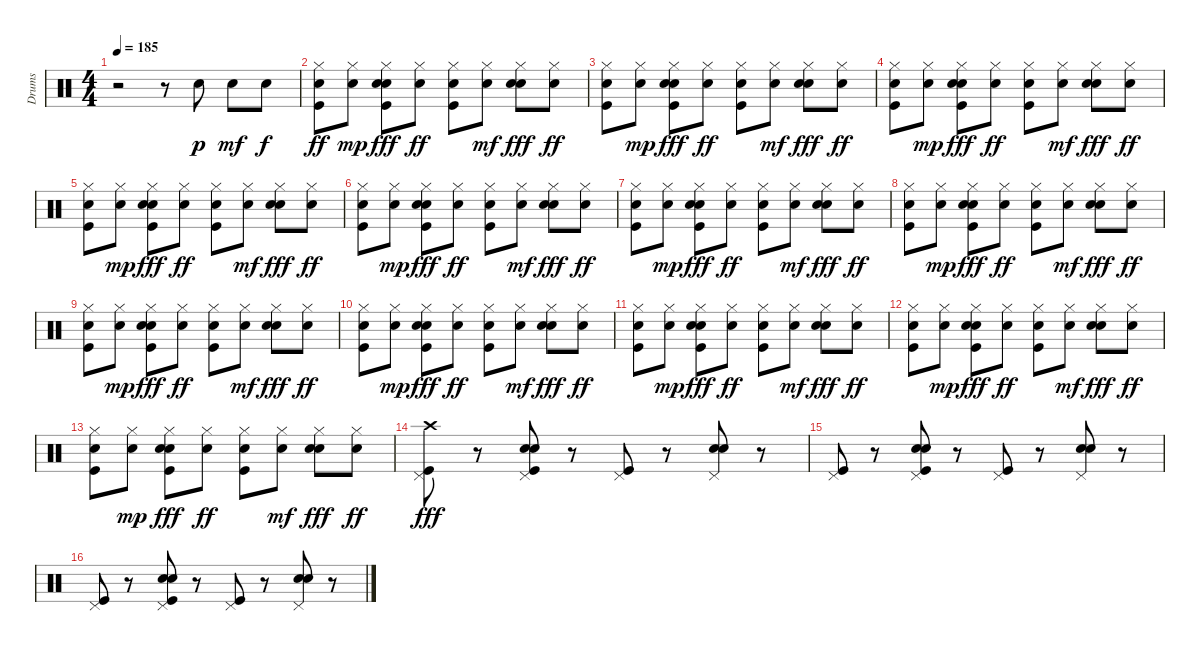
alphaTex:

\track ("Drums" "Drums") {instrument percussion}
\staff {score}
\articulation defaults
\ts (4 4)
\tempo 185
\clef neutral
\ks c
r.2{dy p} r.8 "Snare (hit) 2".8 "Snare (hit) 2".8{dy mf} "Snare (hit) 2".8{dy f} |
("Snare (hit) 2" "Kick (hit)" "Hi-Hat (closed)").8{dy ff} ("Hi-Hat (closed)" "Snare (hit) 2").8{dy mp} ("Kick (hit)" "Snare (hit) 2" "Hi-Hat (closed)" "Hand Clap (hit)").8{dy fff} ("Snare (hit) 2" "Hi-Hat (closed)").8{dy ff} ("Kick (hit)" "Snare (hit) 2" "Hi-Hat (closed)").8 ("Hi-Hat (closed)" "Snare (hit) 2").8{dy mf} ("Hi-Hat (closed)" "Hand Clap (hit)" "Snare (hit) 2").8{dy fff} ("Snare (hit) 2" "Hi-Hat (closed)").8{dy ff} |
("Snare (hit) 2" "Kick (hit)" "Hi-Hat (closed)").8 ("Hi-Hat (closed)" "Snare (hit) 2").8{dy mp} ("Kick (hit)" "Snare (hit) 2" "Hi-Hat (closed)" "Hand Clap (hit)").8{dy fff} ("Snare (hit) 2" "Hi-Hat (closed)").8{dy ff} ("Kick (hit)" "Snare (hit) 2" "Hi-Hat (closed)").8 ("Hi-Hat (closed)" "Snare (hit) 2").8{dy mf} ("Hi-Hat (closed)" "Hand Clap (hit)" "Snare (hit) 2").8{dy fff} ("Snare (hit) 2" "Hi-Hat (closed)").8{dy ff} |
("Snare (hit) 2" "Kick (hit)" "Hi-Hat (closed)").8 ("Hi-Hat (closed)" "Snare (hit) 2").8{dy mp} ("Kick (hit)" "Snare (hit) 2" "Hi-Hat (closed)" "Hand Clap (hit)").8{dy fff} ("Snare (hit) 2" "Hi-Hat (closed)").8{dy ff} ("Kick (hit)" "Snare (hit) 2" "Hi-Hat (closed)").8 ("Hi-Hat (closed)" "Snare (hit) 2").8{dy mf} ("Hi-Hat (closed)" "Hand Clap (hit)" "Snare (hit) 2").8{dy fff} ("Snare (hit) 2" "Hi-Hat (closed)").8{dy ff} |
("Snare (hit) 2" "Kick (hit)" "Hi-Hat (closed)").8 ("Hi-Hat (closed)" "Snare (hit) 2").8{dy mp} ("Kick (hit)" "Snare (hit) 2" "Hi-Hat (closed)" "Hand Clap (hit)").8{dy fff} ("Snare (hit) 2" "Hi-Hat (closed)").8{dy ff} ("Kick (hit)" "Snare (hit) 2" "Hi-Hat (closed)").8 ("Hi-Hat (closed)" "Snare (hit) 2").8{dy mf} ("Hi-Hat (closed)" "Hand Clap (hit)" "Snare (hit) 2").8{dy fff} ("Snare (hit) 2" "Hi-Hat (closed)").8{dy ff} |
("Snare (hit) 2" "Kick (hit)" "Hi-Hat (closed)").8 ("Hi-Hat (closed)" "Snare (hit) 2").8{dy mp} ("Kick (hit)" "Snare (hit) 2" "Hi-Hat (closed)" "Hand Clap (hit)").8{dy fff} ("Snare (hit) 2" "Hi-Hat (closed)").8{dy ff} ("Kick (hit)" "Snare (hit) 2" "Hi-Hat (closed)").8 ("Hi-Hat (closed)" "Snare (hit) 2").8{dy mf} ("Hi-Hat (closed)" "Hand Clap (hit)" "Snare (hit) 2").8{dy fff} ("Snare (hit) 2" "Hi-Hat (closed)").8{dy ff} |
("Snare (hit) 2" "Kick (hit)" "Hi-Hat (closed)").8 ("Hi-Hat (closed)" "Snare (hit) 2").8{dy mp} ("Kick (hit)" "Snare (hit) 2" "Hi-Hat (closed)" "Hand Clap (hit)").8{dy fff} ("Snare (hit) 2" "Hi-Hat (closed)").8{dy ff} ("Kick (hit)" "Snare (hit) 2" "Hi-Hat (closed)").8 ("Hi-Hat (closed)" "Snare (hit) 2").8{dy mf} ("Hi-Hat (closed)" "Hand Clap (hit)" "Snare (hit) 2").8{dy fff} ("Snare (hit) 2" "Hi-Hat (closed)").8{dy ff} |
("Snare (hit) 2" "Kick (hit)" "Hi-Hat (closed)").8 ("Hi-Hat (closed)" "Snare (hit) 2").8{dy mp} ("Kick (hit)" "Snare (hit) 2" "Hi-Hat (closed)" "Hand Clap (hit)").8{dy fff} ("Snare (hit) 2" "Hi-Hat (closed)").8{dy ff} ("Kick (hit)" "Snare (hit) 2" "Hi-Hat (closed)").8 ("Hi-Hat (closed)" "Snare (hit) 2").8{dy mf} ("Hi-Hat (closed)" "Hand Clap (hit)" "Snare (hit) 2").8{dy fff} ("Snare (hit) 2" "Hi-Hat (closed)").8{dy ff} |
("Snare (hit) 2" "Kick (hit)" "Hi-Hat (closed)").8 ("Hi-Hat (closed)" "Snare (hit) 2").8{dy mp} ("Kick (hit)" "Snare (hit) 2" "Hi-Hat (closed)" "Hand Clap (hit)").8{dy fff} ("Snare (hit) 2" "Hi-Hat (closed)").8{dy ff} ("Kick (hit)" "Snare (hit) 2" "Hi-Hat (closed)").8 ("Hi-Hat (closed)" "Snare (hit) 2").8{dy mf} ("Hi-Hat (closed)" "Hand Clap (hit)" "Snare (hit) 2").8{dy fff} ("Snare (hit) 2" "Hi-Hat (closed)").8{dy ff} |
("Snare (hit) 2" "Kick (hit)" "Hi-Hat (closed)").8 ("Hi-Hat (closed)" "Snare (hit) 2").8{dy mp} ("Kick (hit)" "Snare (hit) 2" "Hi-Hat (closed)" "Hand Clap (hit)").8{dy fff} ("Snare (hit) 2" "Hi-Hat (closed)").8{dy ff} ("Kick (hit)" "Snare (hit) 2" "Hi-Hat (closed)").8 ("Hi-Hat (closed)" "Snare (hit) 2").8{dy mf} ("Hi-Hat (closed)" "Hand Clap (hit)" "Snare (hit) 2").8{dy fff} ("Snare (hit) 2" "Hi-Hat (closed)").8{dy ff} |
("Snare (hit) 2" "Kick (hit)" "Hi-Hat (closed)").8 ("Hi-Hat (closed)" "Snare (hit) 2").8{dy mp} ("Kick (hit)" "Snare (hit) 2" "Hi-Hat (closed)" "Hand Clap (hit)").8{dy fff} ("Snare (hit) 2" "Hi-Hat (closed)").8{dy ff} ("Kick (hit)" "Snare (hit) 2" "Hi-Hat (closed)").8 ("Hi-Hat (closed)" "Snare (hit) 2").8{dy mf} ("Hi-Hat (closed)" "Hand Clap (hit)" "Snare (hit) 2").8{dy fff} ("Snare (hit) 2" "Hi-Hat (closed)").8{dy ff} |
("Snare (hit) 2" "Kick (hit)" "Hi-Hat (closed)").8 ("Hi-Hat (closed)" "Snare (hit) 2").8{dy mp} ("Kick (hit)" "Snare (hit) 2" "Hi-Hat (closed)" "Hand Clap (hit)").8{dy fff} ("Snare (hit) 2" "Hi-Hat (closed)").8{dy ff} ("Kick (hit)" "Snare (hit) 2" "Hi-Hat (closed)").8 ("Hi-Hat (closed)" "Snare (hit) 2").8{dy mf} ("Hi-Hat (closed)" "Hand Clap (hit)" "Snare (hit) 2").8{dy fff} ("Snare (hit) 2" "Hi-Hat (closed)").8{dy ff} |
("Snare (hit) 2" "Kick (hit)" "Hi-Hat (closed)").8 ("Hi-Hat (closed)" "Snare (hit) 2").8{dy mp} ("Kick (hit)" "Snare (hit) 2" "Hi-Hat (closed)" "Hand Clap (hit)").8{dy fff} ("Snare (hit) 2" "Hi-Hat (closed)").8{dy ff} ("Kick (hit)" "Snare (hit) 2" "Hi-Hat (closed)").8 ("Hi-Hat (closed)" "Snare (hit) 2").8{dy mf} ("Hi-Hat (closed)" "Hand Clap (hit)" "Snare (hit) 2").8{dy fff} ("Snare (hit) 2" "Hi-Hat (closed)").8{dy ff} |
("Pedal Hi-Hat (hit)" "Crash high (hit)" "Kick (hit)").8{dy fff} r.8 ("Pedal Hi-Hat (hit)" "Kick (hit)" "Hand Clap (hit)" "Snare (hit) 2").8 r.8 ("Pedal Hi-Hat (hit)" "Kick (hit)").8 r.8 ("Snare (hit) 2" "Pedal Hi-Hat (hit)" "Hand Clap (hit)").8 r.8 |
("Pedal Hi-Hat (hit)" "Kick (hit)").8 r.8 ("Pedal Hi-Hat (hit)" "Kick (hit)" "Hand Clap (hit)" "Snare (hit) 2").8 r.8 ("Pedal Hi-Hat (hit)" "Kick (hit)").8 r.8 ("Snare (hit) 2" "Pedal Hi-Hat (hit)" "Hand Clap (hit)").8 r.8 |
("Pedal Hi-Hat (hit)" "Kick (hit)").8 r.8 ("Pedal Hi-Hat (hit)" "Kick (hit)" "Hand Clap (hit)" "Snare (hit) 2").8 r.8 ("Pedal Hi-Hat (hit)" "Kick (hit)").8 r.8 ("Snare (hit) 2" "Pedal Hi-Hat (hit)" "Hand Clap (hit)").8 r.8
